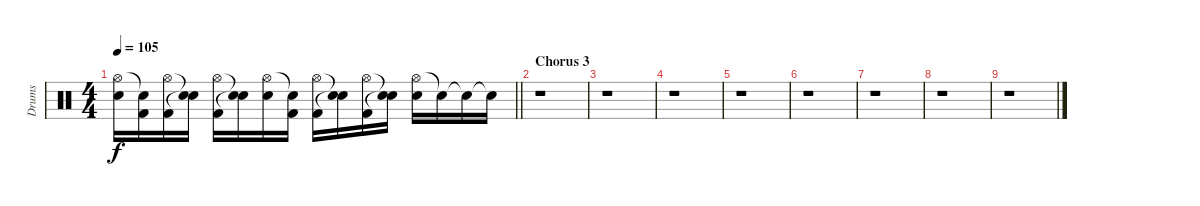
\track ("Drums" "Drums") {instrument percussion}
\staff {score}
\articulation defaults
\ts (4 4)
\tempo 105
\clef neutral
\barLineRight lightlight
\ks c
("Hi-Hat (open)" "Electric Snare (hit)").16{dy f} ("Snare (hit)"{t} "Kick (hit) 2").16 ("Hi-Hat (open)" "Kick (hit) 2").16 ("Snare (hit)"{t} "Snare (hit)"{t}).16 ("Hi-Hat (open)" "Kick (hit) 2").16 ("Snare (hit)"{t} "Snare (hit)"{t}).16 ("Hi-Hat (open)" "Electric Snare (hit)").16 ("Snare (hit)"{t} "Kick (hit) 2").16 ("Hi-Hat (open)" "Kick (hit) 2").16 ("Snare (hit)"{t} "Snare (hit)"{t}).16 ("Hi-Hat (open)" "Kick (hit) 2").16 ("Snare (hit)"{t} "Snare (hit)"{t}).16 ("Hi-Hat (open)" "Electric Snare (hit)").16 "Snare (hit)"{t}.16 "Snare (hit)"{t}.16 "Snare (hit)"{t}.16 |
\section ("" "Chorus 3")
r.1 |
r.1 |
r.1 |
r.1 |
r.1 |
r.1 |
r.1 |
r.1
